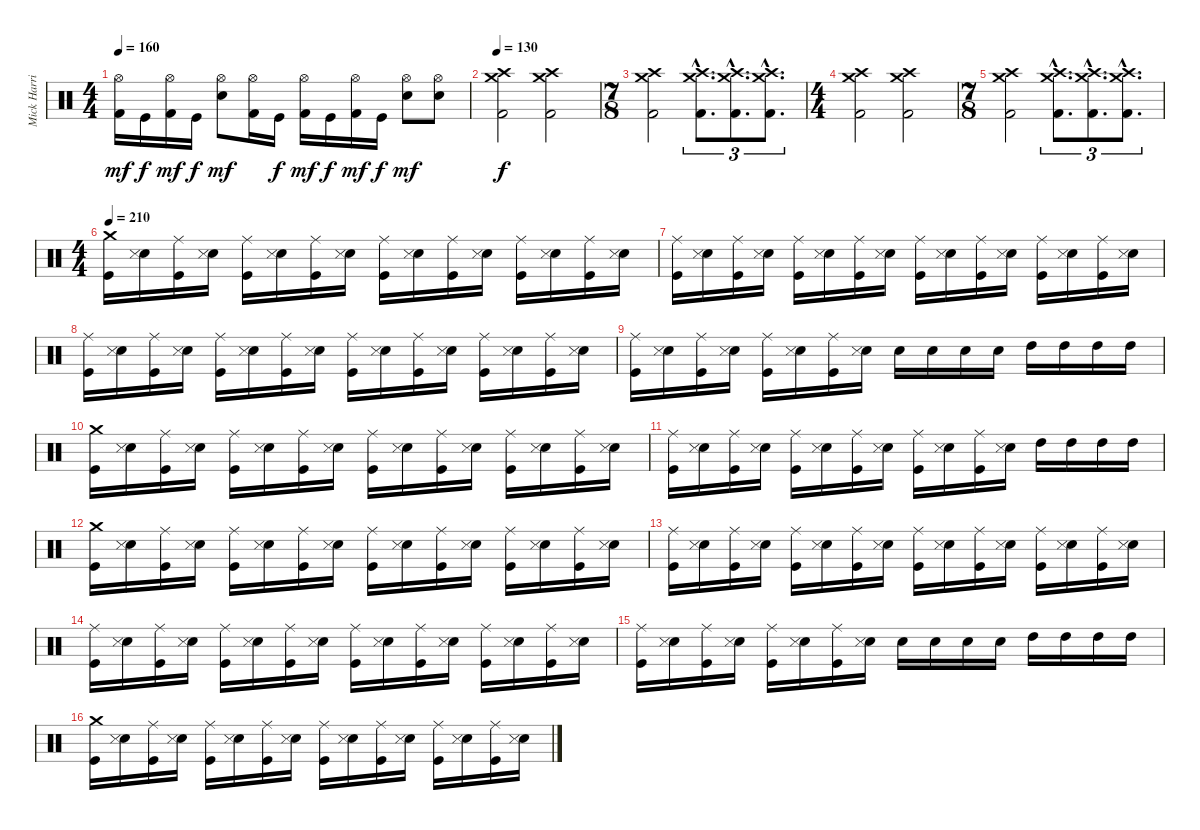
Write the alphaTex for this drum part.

\track ("Mick Harris (Drums)" "Mick Harri") {instrument percussion}
\staff {score}
\articulation defaults
\ts (4 4)
\tempo 160
\clef neutral
\ks c
("Kick (hit) 2" "Hi-Hat (open)").16{dy mf} "Kick (hit)".16{dy f} ("Kick (hit) 2" "Hi-Hat (open)").16{dy mf} "Kick (hit)".16{dy f} ("Electric Snare (hit)" "Hi-Hat (open)").8{dy mf} ("Kick (hit) 2" "Hi-Hat (open)").16 "Kick (hit)".16{dy f} ("Kick (hit) 2" "Hi-Hat (open)").16{dy mf} "Kick (hit)".16{dy f} ("Kick (hit) 2" "Hi-Hat (open)").16{dy mf} "Kick (hit)".16{dy f} ("Electric Snare (hit)" "Hi-Hat (open)").8{dy mf} ("Electric Snare (hit)" "Hi-Hat (open)").8 |
\tempo 130
("Kick (hit) 2" "Crash medium (hit)" "Crash high (hit)").2{dy f} ("Kick (hit) 2" "Crash medium (hit)" "Crash high (hit)").2 |
\ts (7 8)
("Kick (hit) 2" "Crash medium (hit)" "Crash high (hit)").2 ("Kick (hit) 2"{hac} "Crash medium (hit)"{hac} "Crash high (hit)"{hac}).8{d tu (3 2)} ("Kick (hit) 2"{hac} "Crash medium (hit)"{hac} "Crash high (hit)"{hac}).8{d tu (3 2)} ("Kick (hit) 2"{hac} "Crash medium (hit)"{hac} "Crash high (hit)"{hac}).8{d tu (3 2)} |
\ts (4 4)
("Kick (hit) 2" "Crash medium (hit)" "Crash high (hit)").2 ("Kick (hit) 2" "Crash medium (hit)" "Crash high (hit)").2 |
\ts (7 8)
("Kick (hit) 2" "Crash medium (hit)" "Crash high (hit)").2 ("Kick (hit) 2"{hac} "Crash medium (hit)"{hac} "Crash high (hit)"{hac}).8{d tu (3 2)} ("Kick (hit) 2"{hac} "Crash medium (hit)"{hac} "Crash high (hit)"{hac}).8{d tu (3 2)} ("Kick (hit) 2"{hac} "Crash medium (hit)"{hac} "Crash high (hit)"{hac}).8{d tu (3 2)} |
\ts (4 4)
\tempo 210
("Kick (hit)" "Crash medium (hit)").16 ("Electric Snare (hit)" "Snare (side stick) 3").16 ("Kick (hit)" "Ride (middle)").16 ("Electric Snare (hit)" "Snare (side stick) 3").16 ("Kick (hit)" "Ride (middle)").16 ("Electric Snare (hit)" "Snare (side stick) 3").16 ("Kick (hit)" "Ride (middle)").16 ("Electric Snare (hit)" "Snare (side stick) 3").16 ("Kick (hit)" "Ride (middle)").16 ("Electric Snare (hit)" "Snare (side stick) 3").16 ("Kick (hit)" "Ride (middle)").16 ("Electric Snare (hit)" "Snare (side stick) 3").16 ("Kick (hit)" "Ride (middle)").16 ("Electric Snare (hit)" "Snare (side stick) 3").16 ("Kick (hit)" "Ride (middle)").16 ("Electric Snare (hit)" "Snare (side stick) 3").16 |
("Kick (hit)" "Ride (middle)").16 ("Electric Snare (hit)" "Snare (side stick) 3").16 ("Kick (hit)" "Ride (middle)").16 ("Electric Snare (hit)" "Snare (side stick) 3").16 ("Kick (hit)" "Ride (middle)").16 ("Electric Snare (hit)" "Snare (side stick) 3").16 ("Kick (hit)" "Ride (middle)").16 ("Electric Snare (hit)" "Snare (side stick) 3").16 ("Kick (hit)" "Ride (middle)").16 ("Electric Snare (hit)" "Snare (side stick) 3").16 ("Kick (hit)" "Ride (middle)").16 ("Electric Snare (hit)" "Snare (side stick) 3").16 ("Kick (hit)" "Ride (middle)").16 ("Electric Snare (hit)" "Snare (side stick) 3").16 ("Kick (hit)" "Ride (middle)").16 ("Electric Snare (hit)" "Snare (side stick) 3").16 |
("Kick (hit)" "Ride (middle)").16 ("Electric Snare (hit)" "Snare (side stick) 3").16 ("Kick (hit)" "Ride (middle)").16 ("Electric Snare (hit)" "Snare (side stick) 3").16 ("Kick (hit)" "Ride (middle)").16 ("Electric Snare (hit)" "Snare (side stick) 3").16 ("Kick (hit)" "Ride (middle)").16 ("Electric Snare (hit)" "Snare (side stick) 3").16 ("Kick (hit)" "Ride (middle)").16 ("Electric Snare (hit)" "Snare (side stick) 3").16 ("Kick (hit)" "Ride (middle)").16 ("Electric Snare (hit)" "Snare (side stick) 3").16 ("Kick (hit)" "Ride (middle)").16 ("Electric Snare (hit)" "Snare (side stick) 3").16 ("Kick (hit)" "Ride (middle)").16 ("Electric Snare (hit)" "Snare (side stick) 3").16 |
("Kick (hit)" "Ride (middle)").16 ("Electric Snare (hit)" "Snare (side stick) 3").16 ("Kick (hit)" "Ride (middle)").16 ("Electric Snare (hit)" "Snare (side stick) 3").16 ("Kick (hit)" "Ride (middle)").16 ("Electric Snare (hit)" "Snare (side stick) 3").16 ("Kick (hit)" "Ride (middle)").16 ("Electric Snare (hit)" "Snare (side stick) 3").16 "Electric Snare (hit)".16 "Electric Snare (hit)".16 "Electric Snare (hit)".16 "Electric Snare (hit)".16 "High Tom (hit)".16 "High Tom (hit)".16 "High Tom (hit)".16 "High Tom (hit)".16 |
("Kick (hit)" "Crash medium (hit)").16 ("Electric Snare (hit)" "Snare (side stick) 3").16 ("Kick (hit)" "Ride (middle)").16 ("Electric Snare (hit)" "Snare (side stick) 3").16 ("Kick (hit)" "Ride (middle)").16 ("Electric Snare (hit)" "Snare (side stick) 3").16 ("Kick (hit)" "Ride (middle)").16 ("Electric Snare (hit)" "Snare (side stick) 3").16 ("Kick (hit)" "Ride (middle)").16 ("Electric Snare (hit)" "Snare (side stick) 3").16 ("Kick (hit)" "Ride (middle)").16 ("Electric Snare (hit)" "Snare (side stick) 3").16 ("Kick (hit)" "Ride (middle)").16 ("Electric Snare (hit)" "Snare (side stick) 3").16 ("Kick (hit)" "Ride (middle)").16 ("Electric Snare (hit)" "Snare (side stick) 3").16 |
("Kick (hit)" "Ride (middle)").16 ("Electric Snare (hit)" "Snare (side stick) 3").16 ("Kick (hit)" "Ride (middle)").16 ("Electric Snare (hit)" "Snare (side stick) 3").16 ("Kick (hit)" "Ride (middle)").16 ("Electric Snare (hit)" "Snare (side stick) 3").16 ("Kick (hit)" "Ride (middle)").16 ("Electric Snare (hit)" "Snare (side stick) 3").16 ("Kick (hit)" "Ride (middle)").16 ("Electric Snare (hit)" "Snare (side stick) 3").16 ("Kick (hit)" "Ride (middle)").16 ("Electric Snare (hit)" "Snare (side stick) 3").16 "High Tom (hit)".16 "High Tom (hit)".16 "High Tom (hit)".16 "High Tom (hit)".16 |
("Kick (hit)" "Crash medium (hit)").16 ("Electric Snare (hit)" "Snare (side stick) 3").16 ("Kick (hit)" "Ride (middle)").16 ("Electric Snare (hit)" "Snare (side stick) 3").16 ("Kick (hit)" "Ride (middle)").16 ("Electric Snare (hit)" "Snare (side stick) 3").16 ("Kick (hit)" "Ride (middle)").16 ("Electric Snare (hit)" "Snare (side stick) 3").16 ("Kick (hit)" "Ride (middle)").16 ("Electric Snare (hit)" "Snare (side stick) 3").16 ("Kick (hit)" "Ride (middle)").16 ("Electric Snare (hit)" "Snare (side stick) 3").16 ("Kick (hit)" "Ride (middle)").16 ("Electric Snare (hit)" "Snare (side stick) 3").16 ("Kick (hit)" "Ride (middle)").16 ("Electric Snare (hit)" "Snare (side stick) 3").16 |
("Kick (hit)" "Ride (middle)").16 ("Electric Snare (hit)" "Snare (side stick) 3").16 ("Kick (hit)" "Ride (middle)").16 ("Electric Snare (hit)" "Snare (side stick) 3").16 ("Kick (hit)" "Ride (middle)").16 ("Electric Snare (hit)" "Snare (side stick) 3").16 ("Kick (hit)" "Ride (middle)").16 ("Electric Snare (hit)" "Snare (side stick) 3").16 ("Kick (hit)" "Ride (middle)").16 ("Electric Snare (hit)" "Snare (side stick) 3").16 ("Kick (hit)" "Ride (middle)").16 ("Electric Snare (hit)" "Snare (side stick) 3").16 ("Kick (hit)" "Ride (middle)").16 ("Electric Snare (hit)" "Snare (side stick) 3").16 ("Kick (hit)" "Ride (middle)").16 ("Electric Snare (hit)" "Snare (side stick) 3").16 |
("Kick (hit)" "Ride (middle)").16 ("Electric Snare (hit)" "Snare (side stick) 3").16 ("Kick (hit)" "Ride (middle)").16 ("Electric Snare (hit)" "Snare (side stick) 3").16 ("Kick (hit)" "Ride (middle)").16 ("Electric Snare (hit)" "Snare (side stick) 3").16 ("Kick (hit)" "Ride (middle)").16 ("Electric Snare (hit)" "Snare (side stick) 3").16 ("Kick (hit)" "Ride (middle)").16 ("Electric Snare (hit)" "Snare (side stick) 3").16 ("Kick (hit)" "Ride (middle)").16 ("Electric Snare (hit)" "Snare (side stick) 3").16 ("Kick (hit)" "Ride (middle)").16 ("Electric Snare (hit)" "Snare (side stick) 3").16 ("Kick (hit)" "Ride (middle)").16 ("Electric Snare (hit)" "Snare (side stick) 3").16 |
("Kick (hit)" "Ride (middle)").16 ("Electric Snare (hit)" "Snare (side stick) 3").16 ("Kick (hit)" "Ride (middle)").16 ("Electric Snare (hit)" "Snare (side stick) 3").16 ("Kick (hit)" "Ride (middle)").16 ("Electric Snare (hit)" "Snare (side stick) 3").16 ("Kick (hit)" "Ride (middle)").16 ("Electric Snare (hit)" "Snare (side stick) 3").16 "Electric Snare (hit)".16 "Electric Snare (hit)".16 "Electric Snare (hit)".16 "Electric Snare (hit)".16 "High Tom (hit)".16 "High Tom (hit)".16 "High Tom (hit)".16 "High Tom (hit)".16 |
("Kick (hit)" "Crash medium (hit)").16 ("Electric Snare (hit)" "Snare (side stick) 3").16 ("Kick (hit)" "Ride (middle)").16 ("Electric Snare (hit)" "Snare (side stick) 3").16 ("Kick (hit)" "Ride (middle)").16 ("Electric Snare (hit)" "Snare (side stick) 3").16 ("Kick (hit)" "Ride (middle)").16 ("Electric Snare (hit)" "Snare (side stick) 3").16 ("Kick (hit)" "Ride (middle)").16 ("Electric Snare (hit)" "Snare (side stick) 3").16 ("Kick (hit)" "Ride (middle)").16 ("Electric Snare (hit)" "Snare (side stick) 3").16 ("Kick (hit)" "Ride (middle)").16 ("Electric Snare (hit)" "Snare (side stick) 3").16 ("Kick (hit)" "Ride (middle)").16 ("Electric Snare (hit)" "Snare (side stick) 3").16
